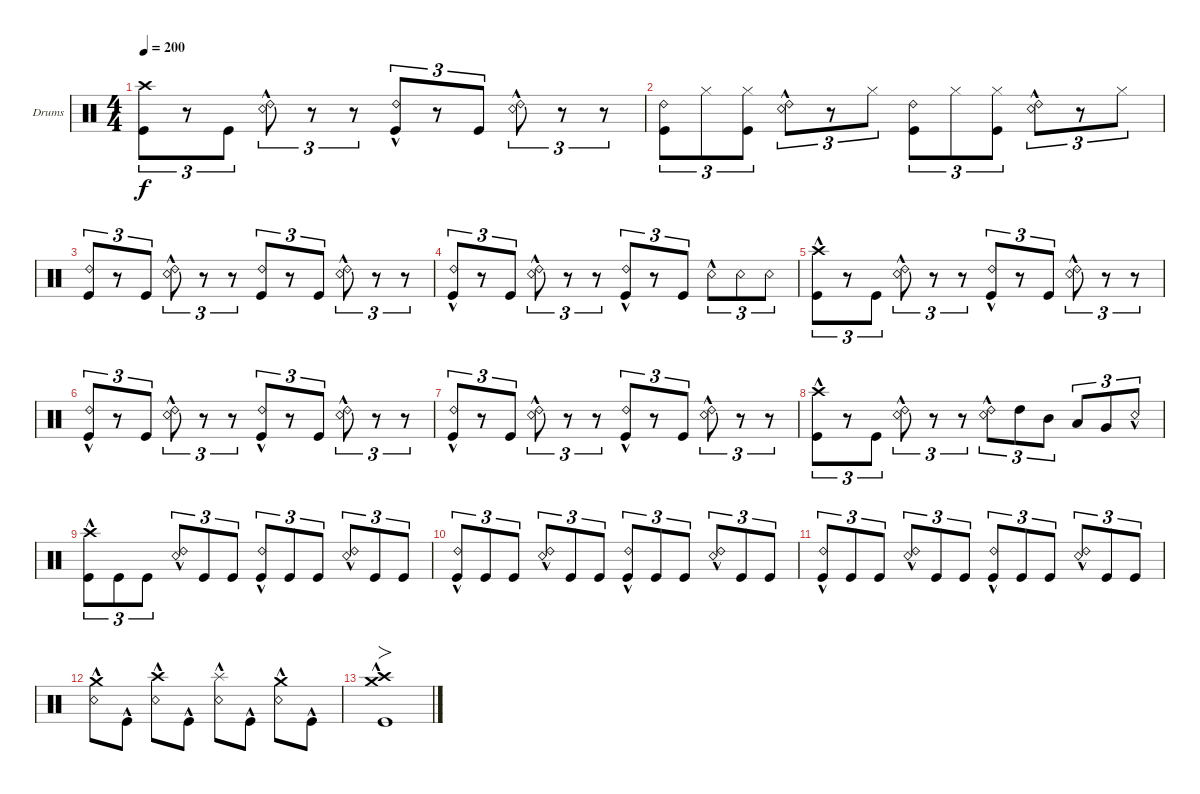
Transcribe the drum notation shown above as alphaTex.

\bracketExtendMode groupsimilarinstruments
\firstSystemTrackNameOrientation horizontal
\otherSystemsTrackNameOrientation horizontal
\track ("Drumkit" "Drums") {instrument percussion}
\staff {score}
\articulation defaults
\ts (4 4)
\tempo 200
\clef neutral
\ks c
("Kick (hit)" "Crash high (hit)").8{tu (3 2) dy f} r.8{tu (3 2)} "Kick (hit)".8{tu (3 2)} ("Snare (rim shot)"{hac} "Ride (bell) 2").8{tu (3 2)} r.8{tu (3 2)} r.8{tu (3 2)} ("Kick (hit)"{hac} "Ride (bell) 2").8{tu (3 2)} r.8{tu (3 2)} "Kick (hit)".8{tu (3 2)} ("Snare (rim shot)"{hac} "Ride (bell) 2").8{tu (3 2)} r.8{tu (3 2)} r.8{tu (3 2)} |
("Kick (hit)" "Ride (bell) 2").8{tu (3 2)} "Hi-Hat (closed)".8{tu (3 2)} ("Kick (hit)" "Hi-Hat (closed)").8{tu (3 2)} ("Snare (rim shot)"{hac} "Ride (bell) 2").8{tu (3 2)} r.8{tu (3 2)} "Hi-Hat (closed)".8{tu (3 2)} ("Kick (hit)" "Ride (bell) 2").8{tu (3 2)} "Hi-Hat (closed)".8{tu (3 2)} ("Kick (hit)" "Hi-Hat (closed)").8{tu (3 2)} ("Snare (rim shot)"{hac} "Ride (bell) 2").8{tu (3 2)} r.8{tu (3 2)} "Hi-Hat (closed)".8{tu (3 2)} |
("Kick (hit)" "Ride (bell) 2").8{tu (3 2)} r.8{tu (3 2)} "Kick (hit)".8{tu (3 2)} ("Snare (rim shot)"{hac} "Ride (bell) 2").8{tu (3 2)} r.8{tu (3 2)} r.8{tu (3 2)} ("Kick (hit)" "Ride (bell) 2").8{tu (3 2)} r.8{tu (3 2)} "Kick (hit)".8{tu (3 2)} ("Snare (rim shot)"{hac} "Ride (bell) 2").8{tu (3 2)} r.8{tu (3 2)} r.8{tu (3 2)} |
("Kick (hit)"{hac} "Ride (bell) 2").8{tu (3 2)} r.8{tu (3 2)} "Kick (hit)".8{tu (3 2)} ("Snare (rim shot)"{hac} "Ride (bell) 2").8{tu (3 2)} r.8{tu (3 2)} r.8{tu (3 2)} ("Kick (hit)"{hac} "Ride (bell) 2").8{tu (3 2)} r.8{tu (3 2)} "Kick (hit)".8{tu (3 2)} "Snare (rim shot)"{hac}.8{tu (3 2)} "Snare (rim shot)".8{tu (3 2)} "Snare (rim shot)".8{tu (3 2)} |
("Kick (hit)"{hac} "Crash high (hit)"{hac}).8{tu (3 2)} r.8{tu (3 2)} "Kick (hit)".8{tu (3 2)} ("Snare (rim shot)"{hac} "Ride (bell) 2").8{tu (3 2)} r.8{tu (3 2)} r.8{tu (3 2)} ("Kick (hit)"{hac} "Ride (bell) 2").8{tu (3 2)} r.8{tu (3 2)} "Kick (hit)".8{tu (3 2)} ("Snare (rim shot)"{hac} "Ride (bell) 2").8{tu (3 2)} r.8{tu (3 2)} r.8{tu (3 2)} |
("Kick (hit)"{hac} "Ride (bell) 2").8{tu (3 2)} r.8{tu (3 2)} "Kick (hit)".8{tu (3 2)} ("Snare (rim shot)"{hac} "Ride (bell) 2").8{tu (3 2)} r.8{tu (3 2)} r.8{tu (3 2)} ("Kick (hit)"{hac} "Ride (bell) 2").8{tu (3 2)} r.8{tu (3 2)} "Kick (hit)".8{tu (3 2)} ("Snare (rim shot)"{hac} "Ride (bell) 2").8{tu (3 2)} r.8{tu (3 2)} r.8{tu (3 2)} |
("Kick (hit)"{hac} "Ride (bell) 2").8{tu (3 2)} r.8{tu (3 2)} "Kick (hit)".8{tu (3 2)} ("Snare (rim shot)"{hac} "Ride (bell) 2").8{tu (3 2)} r.8{tu (3 2)} r.8{tu (3 2)} ("Kick (hit)"{hac} "Ride (bell) 2").8{tu (3 2)} r.8{tu (3 2)} "Kick (hit)".8{tu (3 2)} ("Snare (rim shot)"{hac} "Ride (bell) 2").8{tu (3 2)} r.8{tu (3 2)} r.8{tu (3 2)} |
("Kick (hit)"{hac} "Crash high (hit)"{hac}).8{tu (3 2)} r.8{tu (3 2)} "Kick (hit)".8{tu (3 2)} ("Snare (rim shot)"{hac} "Ride (bell) 2").8{tu (3 2)} r.8{tu (3 2)} r.8{tu (3 2)} ("Snare (rim shot)"{hac} "Ride (bell) 2").8{tu (3 2)} "High Tom (hit)".8{tu (3 2)} "Mid Tom (hit)".8{tu (3 2)} "Low Tom (hit)".8{tu (3 2)} "Very Low Tom (hit)".8{tu (3 2)} "Snare (rim shot)"{hac}.8{tu (3 2)} |
("Kick (hit)"{hac} "Crash high (hit)"{hac}).8{tu (3 2)} "Kick (hit)".8{tu (3 2)} "Kick (hit)".8{tu (3 2)} ("Snare (rim shot)"{hac} "Ride (bell) 2").8{tu (3 2)} "Kick (hit)".8{tu (3 2)} "Kick (hit)".8{tu (3 2)} ("Kick (hit)"{hac} "Ride (bell) 2"{hac}).8{tu (3 2)} "Kick (hit)".8{tu (3 2)} "Kick (hit)".8{tu (3 2)} ("Snare (rim shot)"{hac} "Ride (bell) 2").8{tu (3 2)} "Kick (hit)".8{tu (3 2)} "Kick (hit)".8{tu (3 2)} |
("Kick (hit)"{hac} "Ride (bell) 2"{hac}).8{tu (3 2)} "Kick (hit)".8{tu (3 2)} "Kick (hit)".8{tu (3 2)} ("Snare (rim shot)"{hac} "Ride (bell) 2"{hac}).8{tu (3 2)} "Kick (hit)".8{tu (3 2)} "Kick (hit)".8{tu (3 2)} ("Kick (hit)"{hac} "Ride (bell) 2"{hac}).8{tu (3 2)} "Kick (hit)".8{tu (3 2)} "Kick (hit)".8{tu (3 2)} ("Snare (rim shot)"{hac} "Ride (bell) 2"{hac}).8{tu (3 2)} "Kick (hit)".8{tu (3 2)} "Kick (hit)".8{tu (3 2)} |
("Kick (hit)"{hac} "Ride (bell) 2"{hac}).8{tu (3 2)} "Kick (hit)".8{tu (3 2)} "Kick (hit)".8{tu (3 2)} ("Snare (rim shot)"{hac} "Ride (bell) 2"{hac}).8{tu (3 2)} "Kick (hit)".8{tu (3 2)} "Kick (hit)".8{tu (3 2)} ("Kick (hit)"{hac} "Ride (bell) 2"{hac}).8{tu (3 2)} "Kick (hit)".8{tu (3 2)} "Kick (hit)".8{tu (3 2)} ("Snare (rim shot)"{hac} "Ride (bell) 2"{hac}).8{tu (3 2)} "Kick (hit)".8{tu (3 2)} "Kick (hit)".8{tu (3 2)} |
("Snare (rim shot)"{hac} "Crash medium (hit)"{hac}).8 "Kick (hit)"{hac}.8 ("Snare (rim shot)"{hac} "Crash high (hit)"{hac}).8 "Kick (hit)"{hac}.8 ("Snare (rim shot)"{hac} "Splash (hit)"{hac}).8 "Kick (hit)"{hac}.8 ("Snare (rim shot)"{hac} "Crash medium (hit)"{hac}).8 "Kick (hit)"{hac}.8 |
("Kick (hit)"{hac} "Crash medium (hit)"{hac} "Crash high (hit)"{hac}).1{fo}
